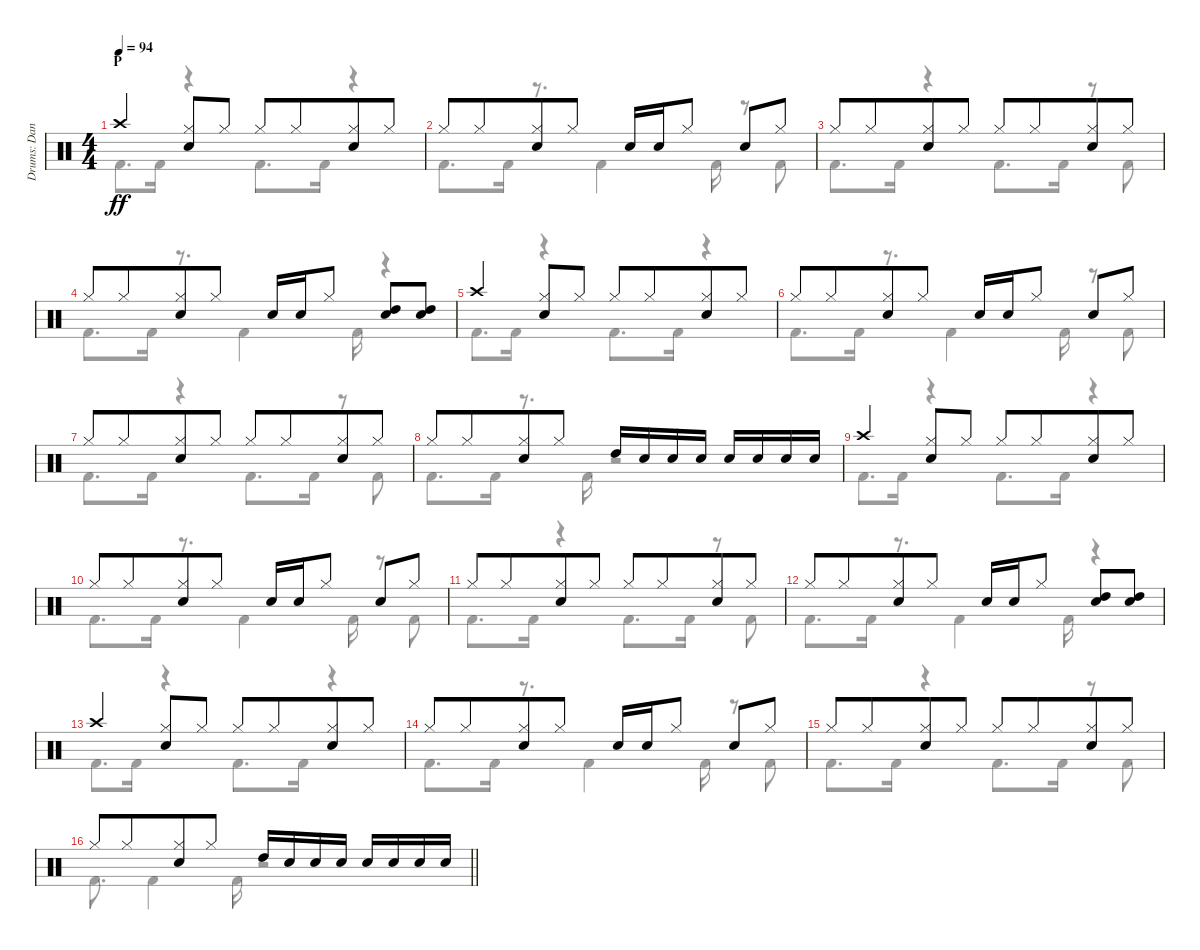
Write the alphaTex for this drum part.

\track ("Drums: Dana" "Drums: Dan") {instrument percussion}
\staff {score}
\articulation defaults
\voice
\ts (4 4)
\section ("" "P")
\tempo 94
\clef neutral
\ks c "Crash high (hit)".4{dy ff beam merge}
("Hi-Hat (closed)" "Snare (hit) 2").8 "Hi-Hat (closed)".8 "Hi-Hat (closed)".8 "Hi-Hat (closed)".8{beam merge} ("Hi-Hat (closed)" "Snare (hit) 2").8 "Hi-Hat (closed)".8 |
"Hi-Hat (closed)".8 "Hi-Hat (closed)".8{beam merge} ("Hi-Hat (closed)" "Snare (hit) 2").8 "Hi-Hat (closed)".8 "Snare (hit) 2".16 "Snare (hit) 2".16{beam merge} "Hi-Hat (closed)".8 "Snare (hit) 2".8 "Hi-Hat (closed)".8 |
"Hi-Hat (closed)".8 "Hi-Hat (closed)".8{beam merge} ("Hi-Hat (closed)" "Snare (hit) 2").8 "Hi-Hat (closed)".8 "Hi-Hat (closed)".8 "Hi-Hat (closed)".8{beam merge} ("Hi-Hat (closed)" "Snare (hit) 2").8 "Hi-Hat (closed)".8 |
"Hi-Hat (closed)".8 "Hi-Hat (closed)".8{beam merge} ("Hi-Hat (closed)" "Snare (hit) 2").8 "Hi-Hat (closed)".8 "Snare (hit) 2".16 "Snare (hit) 2".16{beam merge} "Hi-Hat (closed)".8 ("Snare (hit) 2" "High Tom (hit)").8 ("Snare (hit) 2" "High Tom (hit)").8 |
"Crash high (hit)".4{beam merge} ("Hi-Hat (closed)" "Snare (hit) 2").8 "Hi-Hat (closed)".8 "Hi-Hat (closed)".8 "Hi-Hat (closed)".8{beam merge} ("Hi-Hat (closed)" "Snare (hit) 2").8 "Hi-Hat (closed)".8 |
"Hi-Hat (closed)".8 "Hi-Hat (closed)".8{beam merge} ("Hi-Hat (closed)" "Snare (hit) 2").8 "Hi-Hat (closed)".8 "Snare (hit) 2".16 "Snare (hit) 2".16{beam merge} "Hi-Hat (closed)".8 "Snare (hit) 2".8 "Hi-Hat (closed)".8 |
"Hi-Hat (closed)".8 "Hi-Hat (closed)".8{beam merge} ("Hi-Hat (closed)" "Snare (hit) 2").8 "Hi-Hat (closed)".8 "Hi-Hat (closed)".8 "Hi-Hat (closed)".8{beam merge} ("Hi-Hat (closed)" "Snare (hit) 2").8 "Hi-Hat (closed)".8 |
"Hi-Hat (closed)".8 "Hi-Hat (closed)".8{beam merge} ("Hi-Hat (closed)" "Snare (hit) 2").8 "Hi-Hat (closed)".8 "High Tom (hit)".16 "Snare (hit) 2".16 "Snare (hit) 2".16 "Snare (hit) 2".16 "Snare (hit) 2".16 "Snare (hit) 2".16 "Snare (hit) 2".16 "Snare (hit) 2".16 |
"Crash high (hit)".4{beam merge} ("Hi-Hat (closed)" "Snare (hit) 2").8 "Hi-Hat (closed)".8 "Hi-Hat (closed)".8 "Hi-Hat (closed)".8{beam merge} ("Hi-Hat (closed)" "Snare (hit) 2").8 "Hi-Hat (closed)".8 |
"Hi-Hat (closed)".8 "Hi-Hat (closed)".8{beam merge} ("Hi-Hat (closed)" "Snare (hit) 2").8 "Hi-Hat (closed)".8 "Snare (hit) 2".16 "Snare (hit) 2".16{beam merge} "Hi-Hat (closed)".8 "Snare (hit) 2".8 "Hi-Hat (closed)".8 |
"Hi-Hat (closed)".8 "Hi-Hat (closed)".8{beam merge} ("Hi-Hat (closed)" "Snare (hit) 2").8 "Hi-Hat (closed)".8 "Hi-Hat (closed)".8 "Hi-Hat (closed)".8{beam merge} ("Hi-Hat (closed)" "Snare (hit) 2").8 "Hi-Hat (closed)".8 |
"Hi-Hat (closed)".8 "Hi-Hat (closed)".8{beam merge} ("Hi-Hat (closed)" "Snare (hit) 2").8 "Hi-Hat (closed)".8 "Snare (hit) 2".16 "Snare (hit) 2".16{beam merge} "Hi-Hat (closed)".8 ("Snare (hit) 2" "High Tom (hit)").8 ("Snare (hit) 2" "High Tom (hit)").8 |
"Crash high (hit)".4{beam merge} ("Hi-Hat (closed)" "Snare (hit) 2").8 "Hi-Hat (closed)".8 "Hi-Hat (closed)".8 "Hi-Hat (closed)".8{beam merge} ("Hi-Hat (closed)" "Snare (hit) 2").8 "Hi-Hat (closed)".8 |
"Hi-Hat (closed)".8 "Hi-Hat (closed)".8{beam merge} ("Hi-Hat (closed)" "Snare (hit) 2").8 "Hi-Hat (closed)".8 "Snare (hit) 2".16 "Snare (hit) 2".16{beam merge} "Hi-Hat (closed)".8 "Snare (hit) 2".8 "Hi-Hat (closed)".8 |
"Hi-Hat (closed)".8 "Hi-Hat (closed)".8{beam merge} ("Hi-Hat (closed)" "Snare (hit) 2").8 "Hi-Hat (closed)".8 "Hi-Hat (closed)".8 "Hi-Hat (closed)".8{beam merge} ("Hi-Hat (closed)" "Snare (hit) 2").8 "Hi-Hat (closed)".8 |
\barLineRight lightlight "Hi-Hat (closed)".8 "Hi-Hat (closed)".8{beam merge}
("Hi-Hat (closed)" "Snare (hit) 2").8 "Hi-Hat (closed)".8 "High Tom (hit)".16 "Snare (hit) 2".16 "Snare (hit) 2".16 "Snare (hit) 2".16 "Snare (hit) 2".16 "Snare (hit) 2".16 "Snare (hit) 2".16 "Snare (hit) 2".16
\voice
\clef neutral
\ottava regular
\simile none
\ks c "Kick (hit) 2".8{d dy ff} "Kick (hit) 2".16
r.4 "Kick (hit) 2".8{d} "Kick (hit) 2".16 r.4 |
"Kick (hit) 2".8{d} "Kick (hit) 2".16 r.8{d} "Kick (hit) 2".4 "Kick (hit) 2".16 r.8 "Kick (hit) 2".8 |
"Kick (hit) 2".8{d} "Kick (hit) 2".16 r.4 "Kick (hit) 2".8{d} "Kick (hit) 2".16 r.8 "Kick (hit) 2".8 |
"Kick (hit) 2".8{d} "Kick (hit) 2".16 r.8{d} "Kick (hit) 2".4 "Kick (hit) 2".16 r.4 |
"Kick (hit) 2".8{d} "Kick (hit) 2".16 r.4 "Kick (hit) 2".8{d} "Kick (hit) 2".16 r.4 |
"Kick (hit) 2".8{d} "Kick (hit) 2".16 r.8{d} "Kick (hit) 2".4 "Kick (hit) 2".16 r.8 "Kick (hit) 2".8 |
"Kick (hit) 2".8{d} "Kick (hit) 2".16 r.4 "Kick (hit) 2".8{d} "Kick (hit) 2".16 r.8 "Kick (hit) 2".8 |
"Kick (hit) 2".8{d} "Kick (hit) 2".16 r.8{d} "Kick (hit) 2".16 r.2 |
"Kick (hit) 2".8{d} "Kick (hit) 2".16 r.4 "Kick (hit) 2".8{d} "Kick (hit) 2".16 r.4 |
"Kick (hit) 2".8{d} "Kick (hit) 2".16 r.8{d} "Kick (hit) 2".4 "Kick (hit) 2".16 r.8 "Kick (hit) 2".8 |
"Kick (hit) 2".8{d} "Kick (hit) 2".16 r.4 "Kick (hit) 2".8{d} "Kick (hit) 2".16 r.8 "Kick (hit) 2".8 |
"Kick (hit) 2".8{d} "Kick (hit) 2".16 r.8{d} "Kick (hit) 2".4 "Kick (hit) 2".16 r.4 |
"Kick (hit) 2".8{d} "Kick (hit) 2".16 r.4 "Kick (hit) 2".8{d} "Kick (hit) 2".16 r.4 |
"Kick (hit) 2".8{d} "Kick (hit) 2".16 r.8{d} "Kick (hit) 2".4 "Kick (hit) 2".16 r.8 "Kick (hit) 2".8 |
"Kick (hit) 2".8{d} "Kick (hit) 2".16 r.4 "Kick (hit) 2".8{d} "Kick (hit) 2".16 r.8 "Kick (hit) 2".8 |
\barLineRight lightlight "Kick (hit) 2".8{d} "Kick (hit) 2".4 "Kick (hit) 2".16
r.2
